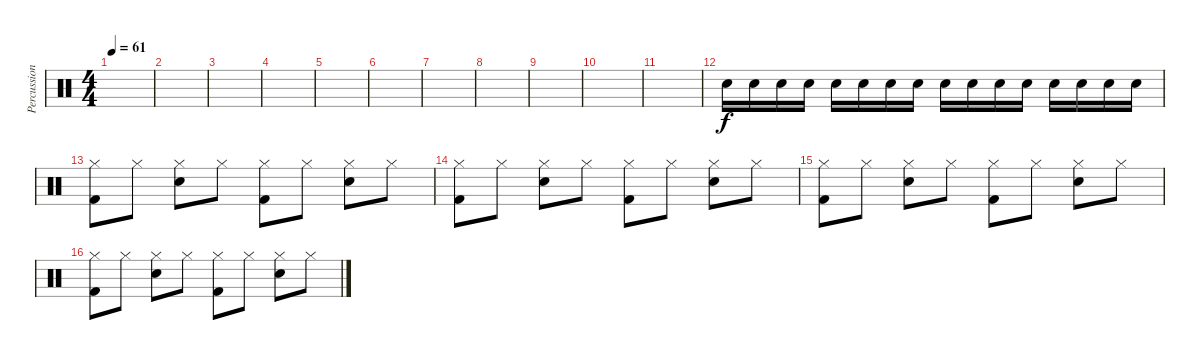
\track ("Percussion" "Percussion") {instrument percussion}
\staff {score}
\articulation defaults
\ts (4 4)
\tempo 61
\clef neutral
\ks c
|
|
|
|
|
|
|
|
|
|
|
"Electric Snare (hit)".16 "Electric Snare (hit)".16 "Electric Snare (hit)".16 "Electric Snare (hit)".16 "Electric Snare (hit)".16 "Electric Snare (hit)".16 "Electric Snare (hit)".16 "Electric Snare (hit)".16 "Electric Snare (hit)".16 "Electric Snare (hit)".16 "Electric Snare (hit)".16 "Electric Snare (hit)".16 "Electric Snare (hit)".16 "Electric Snare (hit)".16 "Electric Snare (hit)".16 "Electric Snare (hit)".16 |
("Hi-Hat (closed)" "Kick (hit) 2").8 "Hi-Hat (closed)".8 ("Hi-Hat (closed)" "Electric Snare (hit)").8 "Hi-Hat (closed)".8 ("Hi-Hat (closed)" "Kick (hit) 2").8 "Hi-Hat (closed)".8 ("Hi-Hat (closed)" "Electric Snare (hit)").8 "Hi-Hat (closed)".8 |
("Hi-Hat (closed)" "Kick (hit) 2").8 "Hi-Hat (closed)".8 ("Hi-Hat (closed)" "Electric Snare (hit)").8 "Hi-Hat (closed)".8 ("Hi-Hat (closed)" "Kick (hit) 2").8 "Hi-Hat (closed)".8 ("Hi-Hat (closed)" "Electric Snare (hit)").8 "Hi-Hat (closed)".8 |
("Hi-Hat (closed)" "Kick (hit) 2").8 "Hi-Hat (closed)".8 ("Hi-Hat (closed)" "Electric Snare (hit)").8 "Hi-Hat (closed)".8 ("Hi-Hat (closed)" "Kick (hit) 2").8 "Hi-Hat (closed)".8 ("Hi-Hat (closed)" "Electric Snare (hit)").8 "Hi-Hat (closed)".8 |
("Hi-Hat (closed)" "Kick (hit) 2").8 "Hi-Hat (closed)".8 ("Hi-Hat (closed)" "Electric Snare (hit)").8 "Hi-Hat (closed)".8 ("Hi-Hat (closed)" "Kick (hit) 2").8 "Hi-Hat (closed)".8 ("Hi-Hat (closed)" "Electric Snare (hit)").8 "Hi-Hat (closed)".8
